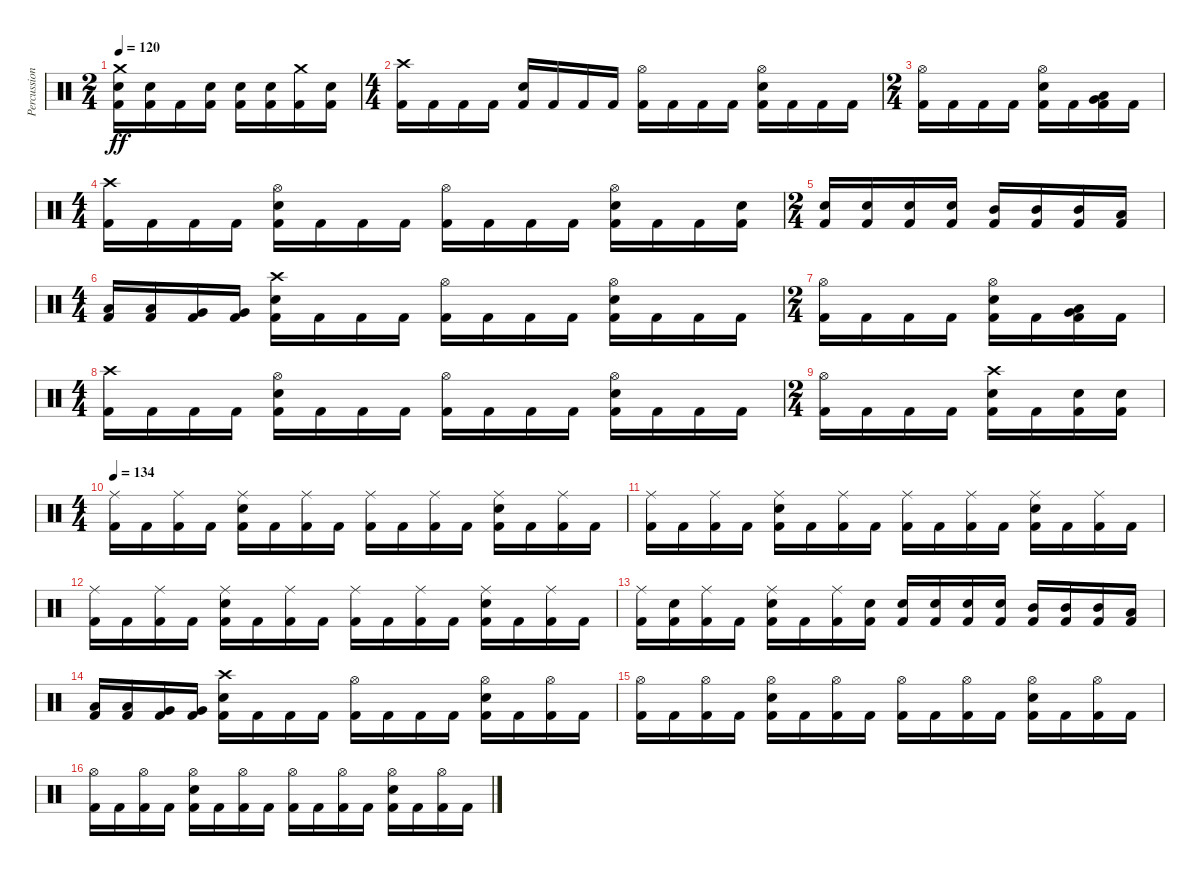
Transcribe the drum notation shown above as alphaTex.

\track ("Percussion" "Percussion") {instrument percussion}
\staff {score}
\articulation defaults
\ts (2 4)
\tempo 120
\clef neutral
\ks c
("Crash medium (hit)" "Electric Snare (hit)" "Kick (hit) 2").16{dy ff} ("Electric Snare (hit)" "Kick (hit) 2").16 "Kick (hit) 2".16 ("Electric Snare (hit)" "Kick (hit) 2").16 ("Electric Snare (hit)" "Kick (hit) 2").16 ("Electric Snare (hit)" "Kick (hit) 2").16 ("Crash medium (hit)" "Kick (hit) 2").16 ("Electric Snare (hit)" "Kick (hit) 2").16 |
\ts (4 4)
("Crash high (hit)" "Kick (hit) 2").16 "Kick (hit) 2".16 "Kick (hit) 2".16 "Kick (hit) 2".16 ("Electric Snare (hit)" "Kick (hit) 2").16 "Kick (hit) 2".16 "Kick (hit) 2".16 "Kick (hit) 2".16 ("Hi-Hat (open)" "Kick (hit) 2").16 "Kick (hit) 2".16 "Kick (hit) 2".16 "Kick (hit) 2".16 ("Hi-Hat (open)" "Electric Snare (hit)" "Kick (hit) 2").16 "Kick (hit) 2".16 "Kick (hit) 2".16 "Kick (hit) 2".16 |
\ts (2 4)
("Hi-Hat (open)" "Kick (hit) 2").16 "Kick (hit) 2".16 "Kick (hit) 2".16 "Kick (hit) 2".16 ("Hi-Hat (open)" "Electric Snare (hit)" "Kick (hit) 2").16 "Kick (hit) 2".16 ("Low Tom (hit)" "Very Low Tom (hit)" "Kick (hit) 2").16 "Kick (hit) 2".16 |
\ts (4 4)
("Crash high (hit)" "Kick (hit) 2").16 "Kick (hit) 2".16 "Kick (hit) 2".16 "Kick (hit) 2".16 ("Hi-Hat (open)" "Electric Snare (hit)" "Kick (hit) 2").16 "Kick (hit) 2".16 "Kick (hit) 2".16 "Kick (hit) 2".16 ("Hi-Hat (open)" "Kick (hit) 2").16 "Kick (hit) 2".16 "Kick (hit) 2".16 "Kick (hit) 2".16 ("Hi-Hat (open)" "Electric Snare (hit)" "Kick (hit) 2").16 "Kick (hit) 2".16 "Kick (hit) 2".16 ("Electric Snare (hit)" "Kick (hit) 2").16 |
\ts (2 4)
("Electric Snare (hit)" "Kick (hit) 2").16 ("Electric Snare (hit)" "Kick (hit) 2").16 ("Electric Snare (hit)" "Kick (hit) 2").16 ("Electric Snare (hit)" "Kick (hit) 2").16 ("Mid Tom (hit)" "Kick (hit) 2").16 ("Mid Tom (hit)" "Kick (hit) 2").16 ("Mid Tom (hit)" "Kick (hit) 2").16 ("Low Tom (hit)" "Kick (hit) 2").16 |
\ts (4 4)
("Low Tom (hit)" "Kick (hit) 2").16 ("Low Tom (hit)" "Kick (hit) 2").16 ("Very Low Tom (hit)" "Kick (hit) 2").16 ("Very Low Tom (hit)" "Kick (hit) 2").16 ("Crash high (hit)" "Electric Snare (hit)" "Kick (hit) 2").16 "Kick (hit) 2".16 "Kick (hit) 2".16 "Kick (hit) 2".16 ("Hi-Hat (open)" "Kick (hit) 2").16 "Kick (hit) 2".16 "Kick (hit) 2".16 "Kick (hit) 2".16 ("Hi-Hat (open)" "Electric Snare (hit)" "Kick (hit) 2").16 "Kick (hit) 2".16 "Kick (hit) 2".16 "Kick (hit) 2".16 |
\ts (2 4)
("Hi-Hat (open)" "Kick (hit) 2").16 "Kick (hit) 2".16 "Kick (hit) 2".16 "Kick (hit) 2".16 ("Hi-Hat (open)" "Electric Snare (hit)" "Kick (hit) 2").16 "Kick (hit) 2".16 ("Low Tom (hit)" "Very Low Tom (hit)" "Kick (hit) 2").16 "Kick (hit) 2".16 |
\ts (4 4)
("Crash high (hit)" "Kick (hit) 2").16 "Kick (hit) 2".16 "Kick (hit) 2".16 "Kick (hit) 2".16 ("Hi-Hat (open)" "Electric Snare (hit)" "Kick (hit) 2").16 "Kick (hit) 2".16 "Kick (hit) 2".16 "Kick (hit) 2".16 ("Hi-Hat (open)" "Kick (hit) 2").16 "Kick (hit) 2".16 "Kick (hit) 2".16 "Kick (hit) 2".16 ("Hi-Hat (open)" "Electric Snare (hit)" "Kick (hit) 2").16 "Kick (hit) 2".16 "Kick (hit) 2".16 "Kick (hit) 2".16 |
\ts (2 4)
("Hi-Hat (open)" "Kick (hit) 2").16 "Kick (hit) 2".16 "Kick (hit) 2".16 "Kick (hit) 2".16 ("Crash high (hit)" "Electric Snare (hit)" "Kick (hit) 2").16 "Kick (hit) 2".16 ("Electric Snare (hit)" "Kick (hit) 2").16 ("Electric Snare (hit)" "Kick (hit) 2").16 |
\ts (4 4)
\tempo 134
("Ride (middle)" "Kick (hit) 2").16 "Kick (hit) 2".16 ("Ride (middle)" "Kick (hit) 2").16 "Kick (hit) 2".16 ("Ride (middle)" "Electric Snare (hit)" "Kick (hit) 2").16 "Kick (hit) 2".16 ("Ride (middle)" "Kick (hit) 2").16 "Kick (hit) 2".16 ("Ride (middle)" "Kick (hit) 2").16 "Kick (hit) 2".16 ("Ride (middle)" "Kick (hit) 2").16 "Kick (hit) 2".16 ("Ride (middle)" "Electric Snare (hit)" "Kick (hit) 2").16 "Kick (hit) 2".16 ("Ride (middle)" "Kick (hit) 2").16 "Kick (hit) 2".16 |
("Ride (middle)" "Kick (hit) 2").16 "Kick (hit) 2".16 ("Ride (middle)" "Kick (hit) 2").16 "Kick (hit) 2".16 ("Ride (middle)" "Electric Snare (hit)" "Kick (hit) 2").16 "Kick (hit) 2".16 ("Ride (middle)" "Kick (hit) 2").16 "Kick (hit) 2".16 ("Ride (middle)" "Kick (hit) 2").16 "Kick (hit) 2".16 ("Ride (middle)" "Kick (hit) 2").16 "Kick (hit) 2".16 ("Ride (middle)" "Electric Snare (hit)" "Kick (hit) 2").16 "Kick (hit) 2".16 ("Ride (middle)" "Kick (hit) 2").16 "Kick (hit) 2".16 |
("Ride (middle)" "Kick (hit) 2").16 "Kick (hit) 2".16 ("Ride (middle)" "Kick (hit) 2").16 "Kick (hit) 2".16 ("Ride (middle)" "Electric Snare (hit)" "Kick (hit) 2").16 "Kick (hit) 2".16 ("Ride (middle)" "Kick (hit) 2").16 "Kick (hit) 2".16 ("Ride (middle)" "Kick (hit) 2").16 "Kick (hit) 2".16 ("Ride (middle)" "Kick (hit) 2").16 "Kick (hit) 2".16 ("Ride (middle)" "Electric Snare (hit)" "Kick (hit) 2").16 "Kick (hit) 2".16 ("Ride (middle)" "Kick (hit) 2").16 "Kick (hit) 2".16 |
("Ride (middle)" "Kick (hit) 2").16 ("Electric Snare (hit)" "Kick (hit) 2").16 ("Ride (middle)" "Kick (hit) 2").16 "Kick (hit) 2".16 ("Ride (middle)" "Electric Snare (hit)" "Kick (hit) 2").16 "Kick (hit) 2".16 ("Ride (middle)" "Kick (hit) 2").16 ("Electric Snare (hit)" "Kick (hit) 2").16 ("Electric Snare (hit)" "Kick (hit) 2").16 ("Electric Snare (hit)" "Kick (hit) 2").16 ("Electric Snare (hit)" "Kick (hit) 2").16 ("Electric Snare (hit)" "Kick (hit) 2").16 ("Mid Tom (hit)" "Kick (hit) 2").16 ("Mid Tom (hit)" "Kick (hit) 2").16 ("Mid Tom (hit)" "Kick (hit) 2").16 ("Low Tom (hit)" "Kick (hit) 2").16 |
("Low Tom (hit)" "Kick (hit) 2").16 ("Low Tom (hit)" "Kick (hit) 2").16 ("Very Low Tom (hit)" "Kick (hit) 2").16 ("Very Low Tom (hit)" "Kick (hit) 2").16 ("Crash high (hit)" "Electric Snare (hit)" "Kick (hit) 2").16 "Kick (hit) 2".16 "Kick (hit) 2".16 "Kick (hit) 2".16 ("Hi-Hat (open)" "Kick (hit) 2").16 "Kick (hit) 2".16 "Kick (hit) 2".16 "Kick (hit) 2".16 ("Hi-Hat (open)" "Electric Snare (hit)" "Kick (hit) 2").16 "Kick (hit) 2".16 ("Hi-Hat (open)" "Kick (hit) 2").16 "Kick (hit) 2".16 |
("Hi-Hat (open)" "Kick (hit) 2").16 "Kick (hit) 2".16 ("Hi-Hat (open)" "Kick (hit) 2").16 "Kick (hit) 2".16 ("Hi-Hat (open)" "Electric Snare (hit)" "Kick (hit) 2").16 "Kick (hit) 2".16 ("Hi-Hat (open)" "Kick (hit) 2").16 "Kick (hit) 2".16 ("Hi-Hat (open)" "Kick (hit) 2").16 "Kick (hit) 2".16 ("Hi-Hat (open)" "Kick (hit) 2").16 "Kick (hit) 2".16 ("Hi-Hat (open)" "Electric Snare (hit)" "Kick (hit) 2").16 "Kick (hit) 2".16 ("Hi-Hat (open)" "Kick (hit) 2").16 "Kick (hit) 2".16 |
("Hi-Hat (open)" "Kick (hit) 2").16 "Kick (hit) 2".16 ("Hi-Hat (open)" "Kick (hit) 2").16 "Kick (hit) 2".16 ("Hi-Hat (open)" "Electric Snare (hit)" "Kick (hit) 2").16 "Kick (hit) 2".16 ("Hi-Hat (open)" "Kick (hit) 2").16 "Kick (hit) 2".16 ("Hi-Hat (open)" "Kick (hit) 2").16 "Kick (hit) 2".16 ("Hi-Hat (open)" "Kick (hit) 2").16 "Kick (hit) 2".16 ("Hi-Hat (open)" "Electric Snare (hit)" "Kick (hit) 2").16 "Kick (hit) 2".16 ("Hi-Hat (open)" "Kick (hit) 2").16 "Kick (hit) 2".16
